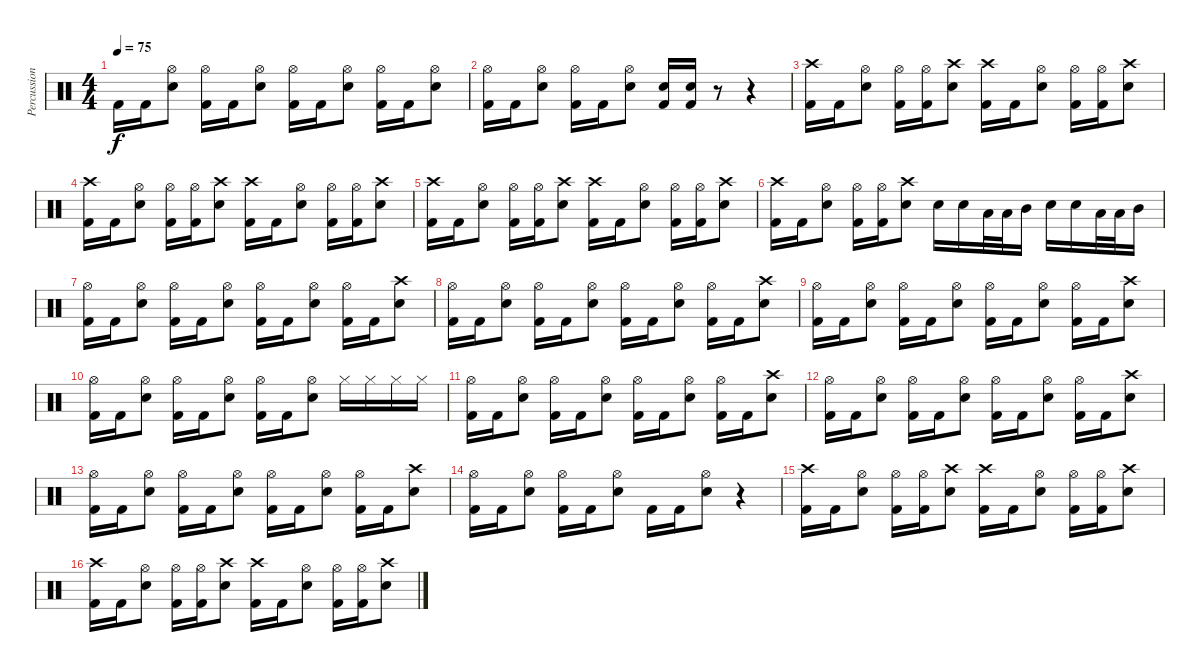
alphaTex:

\track ("Percussion" "Percussion") {instrument percussion}
\staff {score}
\articulation defaults
\ts (4 4)
\tempo 75
\clef neutral
\ks c "Kick (hit) 2".16{dy f} "Kick (hit) 2".16
("Hi-Hat (open)" "Snare (hit) 2").8 ("Hi-Hat (open)" "Kick (hit) 2").16 "Kick (hit) 2".16 ("Hi-Hat (open)" "Snare (hit) 2").8 ("Hi-Hat (open)" "Kick (hit) 2").16 "Kick (hit) 2".16 ("Hi-Hat (open)" "Snare (hit) 2").8 ("Hi-Hat (open)" "Kick (hit) 2").16 "Kick (hit) 2".16 ("Hi-Hat (open)" "Snare (hit) 2").8 |
("Hi-Hat (open)" "Kick (hit) 2").16 "Kick (hit) 2".16 ("Hi-Hat (open)" "Snare (hit) 2").8 ("Hi-Hat (open)" "Kick (hit) 2").16 "Kick (hit) 2".16 ("Hi-Hat (open)" "Snare (hit) 2").8 ("Snare (hit) 2" "Kick (hit) 2").16 ("Snare (hit) 2" "Kick (hit) 2").16 r.8 r.4 |
("Crash high (hit)" "Kick (hit) 2").16 "Kick (hit) 2".16 ("Hi-Hat (open)" "Snare (hit) 2").8 ("Hi-Hat (open)" "Kick (hit) 2").16 ("Hi-Hat (open)" "Kick (hit) 2").16 ("Crash high (hit)" "Snare (hit) 2").8 ("Crash high (hit)" "Kick (hit) 2").16 "Kick (hit) 2".16 ("Hi-Hat (open)" "Snare (hit) 2").8 ("Hi-Hat (open)" "Kick (hit) 2").16 ("Hi-Hat (open)" "Kick (hit) 2").16 ("Crash high (hit)" "Snare (hit) 2").8 |
("Crash high (hit)" "Kick (hit) 2").16 "Kick (hit) 2".16 ("Hi-Hat (open)" "Snare (hit) 2").8 ("Hi-Hat (open)" "Kick (hit) 2").16 ("Hi-Hat (open)" "Kick (hit) 2").16 ("Crash high (hit)" "Snare (hit) 2").8 ("Crash high (hit)" "Kick (hit) 2").16 "Kick (hit) 2".16 ("Hi-Hat (open)" "Snare (hit) 2").8 ("Hi-Hat (open)" "Kick (hit) 2").16 ("Hi-Hat (open)" "Kick (hit) 2").16 ("Crash high (hit)" "Snare (hit) 2").8 |
("Crash high (hit)" "Kick (hit) 2").16 "Kick (hit) 2".16 ("Hi-Hat (open)" "Snare (hit) 2").8 ("Hi-Hat (open)" "Kick (hit) 2").16 ("Hi-Hat (open)" "Kick (hit) 2").16 ("Crash high (hit)" "Snare (hit) 2").8 ("Crash high (hit)" "Kick (hit) 2").16 "Kick (hit) 2".16 ("Hi-Hat (open)" "Snare (hit) 2").8 ("Hi-Hat (open)" "Kick (hit) 2").16 ("Hi-Hat (open)" "Kick (hit) 2").16 ("Crash high (hit)" "Snare (hit) 2").8 |
("Crash high (hit)" "Kick (hit) 2").16 "Kick (hit) 2".16 ("Hi-Hat (open)" "Snare (hit) 2").8 ("Hi-Hat (open)" "Kick (hit) 2").16 ("Hi-Hat (open)" "Kick (hit) 2").16 ("Crash high (hit)" "Snare (hit) 2").8 "Snare (hit) 2".16 "Snare (hit) 2".16 "Low Tom (hit)".32 "Low Tom (hit)".32 "Mid Tom (hit)".16 "Snare (hit) 2".16 "Snare (hit) 2".16 "Low Tom (hit)".32 "Low Tom (hit)".32 "Mid Tom (hit)".16 |
("Hi-Hat (open)" "Kick (hit) 2").16 "Kick (hit) 2".16 ("Hi-Hat (open)" "Snare (hit) 2").8 ("Hi-Hat (open)" "Kick (hit) 2").16 "Kick (hit) 2".16 ("Hi-Hat (open)" "Snare (hit) 2").8 ("Hi-Hat (open)" "Kick (hit) 2").16 "Kick (hit) 2".16 ("Hi-Hat (open)" "Snare (hit) 2").8 ("Hi-Hat (open)" "Kick (hit) 2").16 "Kick (hit) 2".16 ("Crash high (hit)" "Snare (hit) 2").8 |
("Hi-Hat (open)" "Kick (hit) 2").16 "Kick (hit) 2".16 ("Hi-Hat (open)" "Snare (hit) 2").8 ("Hi-Hat (open)" "Kick (hit) 2").16 "Kick (hit) 2".16 ("Hi-Hat (open)" "Snare (hit) 2").8 ("Hi-Hat (open)" "Kick (hit) 2").16 "Kick (hit) 2".16 ("Hi-Hat (open)" "Snare (hit) 2").8 ("Hi-Hat (open)" "Kick (hit) 2").16 "Kick (hit) 2".16 ("Crash high (hit)" "Snare (hit) 2").8 |
("Hi-Hat (open)" "Kick (hit) 2").16 "Kick (hit) 2".16 ("Hi-Hat (open)" "Snare (hit) 2").8 ("Hi-Hat (open)" "Kick (hit) 2").16 "Kick (hit) 2".16 ("Hi-Hat (open)" "Snare (hit) 2").8 ("Hi-Hat (open)" "Kick (hit) 2").16 "Kick (hit) 2".16 ("Hi-Hat (open)" "Snare (hit) 2").8 ("Hi-Hat (open)" "Kick (hit) 2").16 "Kick (hit) 2".16 ("Crash high (hit)" "Snare (hit) 2").8 |
("Hi-Hat (open)" "Kick (hit) 2").16 "Kick (hit) 2".16 ("Hi-Hat (open)" "Snare (hit) 2").8 ("Hi-Hat (open)" "Kick (hit) 2").16 "Kick (hit) 2".16 ("Hi-Hat (open)" "Snare (hit) 2").8 ("Hi-Hat (open)" "Kick (hit) 2").16 "Kick (hit) 2".16 ("Hi-Hat (open)" "Snare (hit) 2").8 "Hi-Hat (closed)".16 "Hi-Hat (closed)".16 "Hi-Hat (closed)".16 "Hi-Hat (closed)".16 |
("Hi-Hat (open)" "Kick (hit) 2").16 "Kick (hit) 2".16 ("Hi-Hat (open)" "Snare (hit) 2").8 ("Hi-Hat (open)" "Kick (hit) 2").16 "Kick (hit) 2".16 ("Hi-Hat (open)" "Snare (hit) 2").8 ("Hi-Hat (open)" "Kick (hit) 2").16 "Kick (hit) 2".16 ("Hi-Hat (open)" "Snare (hit) 2").8 ("Hi-Hat (open)" "Kick (hit) 2").16 "Kick (hit) 2".16 ("Crash high (hit)" "Snare (hit) 2").8 |
("Hi-Hat (open)" "Kick (hit) 2").16 "Kick (hit) 2".16 ("Hi-Hat (open)" "Snare (hit) 2").8 ("Hi-Hat (open)" "Kick (hit) 2").16 "Kick (hit) 2".16 ("Hi-Hat (open)" "Snare (hit) 2").8 ("Hi-Hat (open)" "Kick (hit) 2").16 "Kick (hit) 2".16 ("Hi-Hat (open)" "Snare (hit) 2").8 ("Hi-Hat (open)" "Kick (hit) 2").16 "Kick (hit) 2".16 ("Crash high (hit)" "Snare (hit) 2").8 |
("Hi-Hat (open)" "Kick (hit) 2").16 "Kick (hit) 2".16 ("Hi-Hat (open)" "Snare (hit) 2").8 ("Hi-Hat (open)" "Kick (hit) 2").16 "Kick (hit) 2".16 ("Hi-Hat (open)" "Snare (hit) 2").8 ("Hi-Hat (open)" "Kick (hit) 2").16 "Kick (hit) 2".16 ("Hi-Hat (open)" "Snare (hit) 2").8 ("Hi-Hat (open)" "Kick (hit) 2").16 "Kick (hit) 2".16 ("Crash high (hit)" "Snare (hit) 2").8 |
("Hi-Hat (open)" "Kick (hit) 2").16 "Kick (hit) 2".16 ("Hi-Hat (open)" "Snare (hit) 2").8 ("Hi-Hat (open)" "Kick (hit) 2").16 "Kick (hit) 2".16 ("Hi-Hat (open)" "Snare (hit) 2").8 "Kick (hit) 2".16 "Kick (hit) 2".16 ("Hi-Hat (open)" "Snare (hit) 2").8 r.4 |
("Crash high (hit)" "Kick (hit) 2").16 "Kick (hit) 2".16 ("Hi-Hat (open)" "Snare (hit) 2").8 ("Hi-Hat (open)" "Kick (hit) 2").16 ("Hi-Hat (open)" "Kick (hit) 2").16 ("Crash high (hit)" "Snare (hit) 2").8 ("Crash high (hit)" "Kick (hit) 2").16 "Kick (hit) 2".16 ("Hi-Hat (open)" "Snare (hit) 2").8 ("Hi-Hat (open)" "Kick (hit) 2").16 ("Hi-Hat (open)" "Kick (hit) 2").16 ("Crash high (hit)" "Snare (hit) 2").8 |
("Crash high (hit)" "Kick (hit) 2").16 "Kick (hit) 2".16 ("Hi-Hat (open)" "Snare (hit) 2").8 ("Hi-Hat (open)" "Kick (hit) 2").16 ("Hi-Hat (open)" "Kick (hit) 2").16 ("Crash high (hit)" "Snare (hit) 2").8 ("Crash high (hit)" "Kick (hit) 2").16 "Kick (hit) 2".16 ("Hi-Hat (open)" "Snare (hit) 2").8 ("Hi-Hat (open)" "Kick (hit) 2").16 ("Hi-Hat (open)" "Kick (hit) 2").16 ("Crash high (hit)" "Snare (hit) 2").8
